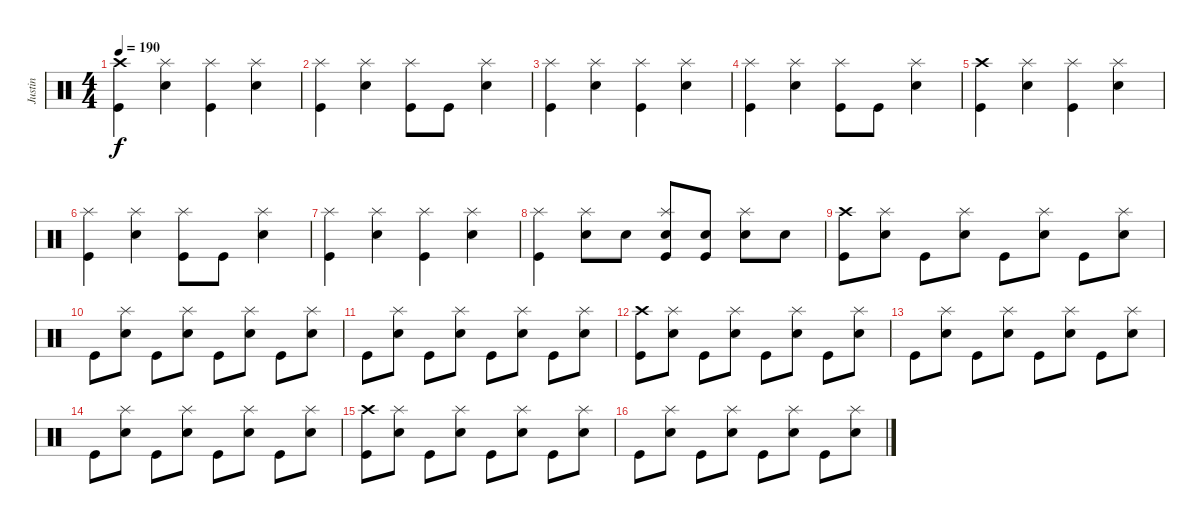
\track ("Justin" "Justin") {instrument percussion}
\staff {score}
\articulation defaults
\ts (4 4)
\tempo 190
\clef neutral
\ks c
("Crash high (hit)" "Kick (hit)").4{dy f} ("Splash (hit)" "Electric Snare (hit)").4 ("Splash (hit)" "Kick (hit)").4 ("Splash (hit)" "Electric Snare (hit)").4 |
("Splash (hit)" "Kick (hit)").4 ("Splash (hit)" "Electric Snare (hit)").4 ("Splash (hit)" "Kick (hit)").8 "Kick (hit)".8 ("Splash (hit)" "Electric Snare (hit)").4 |
("Splash (hit)" "Kick (hit)").4 ("Splash (hit)" "Electric Snare (hit)").4 ("Splash (hit)" "Kick (hit)").4 ("Splash (hit)" "Electric Snare (hit)").4 |
("Splash (hit)" "Kick (hit)").4 ("Splash (hit)" "Electric Snare (hit)").4 ("Splash (hit)" "Kick (hit)").8 "Kick (hit)".8 ("Splash (hit)" "Electric Snare (hit)").4 |
("Crash high (hit)" "Kick (hit)").4 ("Splash (hit)" "Electric Snare (hit)").4 ("Splash (hit)" "Kick (hit)").4 ("Splash (hit)" "Electric Snare (hit)").4 |
("Splash (hit)" "Kick (hit)").4 ("Splash (hit)" "Electric Snare (hit)").4 ("Splash (hit)" "Kick (hit)").8 "Kick (hit)".8 ("Splash (hit)" "Electric Snare (hit)").4 |
("Splash (hit)" "Kick (hit)").4 ("Splash (hit)" "Electric Snare (hit)").4 ("Splash (hit)" "Kick (hit)").4 ("Splash (hit)" "Electric Snare (hit)").4 |
("Splash (hit)" "Kick (hit)").4 ("Splash (hit)" "Electric Snare (hit)").8 "Electric Snare (hit)".8 ("Splash (hit)" "Electric Snare (hit)" "Kick (hit)").8 ("Electric Snare (hit)" "Kick (hit)").8 ("Splash (hit)" "Electric Snare (hit)").8 "Electric Snare (hit)".8 |
("Crash high (hit)" "Kick (hit)").8 ("Splash (hit)" "Electric Snare (hit)").8 "Kick (hit)".8 ("Splash (hit)" "Electric Snare (hit)").8 "Kick (hit)".8 ("Splash (hit)" "Electric Snare (hit)").8 "Kick (hit)".8 ("Splash (hit)" "Electric Snare (hit)").8 |
"Kick (hit)".8 ("Splash (hit)" "Electric Snare (hit)").8 "Kick (hit)".8 ("Splash (hit)" "Electric Snare (hit)").8 "Kick (hit)".8 ("Splash (hit)" "Electric Snare (hit)").8 "Kick (hit)".8 ("Splash (hit)" "Electric Snare (hit)").8 |
"Kick (hit)".8 ("Splash (hit)" "Electric Snare (hit)").8 "Kick (hit)".8 ("Splash (hit)" "Electric Snare (hit)").8 "Kick (hit)".8 ("Splash (hit)" "Electric Snare (hit)").8 "Kick (hit)".8 ("Splash (hit)" "Electric Snare (hit)").8 |
("Crash high (hit)" "Kick (hit)").8 ("Splash (hit)" "Electric Snare (hit)").8 "Kick (hit)".8 ("Splash (hit)" "Electric Snare (hit)").8 "Kick (hit)".8 ("Splash (hit)" "Electric Snare (hit)").8 "Kick (hit)".8 ("Splash (hit)" "Electric Snare (hit)").8 |
"Kick (hit)".8 ("Splash (hit)" "Electric Snare (hit)").8 "Kick (hit)".8 ("Splash (hit)" "Electric Snare (hit)").8 "Kick (hit)".8 ("Splash (hit)" "Electric Snare (hit)").8 "Kick (hit)".8 ("Splash (hit)" "Electric Snare (hit)").8 |
"Kick (hit)".8 ("Splash (hit)" "Electric Snare (hit)").8 "Kick (hit)".8 ("Splash (hit)" "Electric Snare (hit)").8 "Kick (hit)".8 ("Splash (hit)" "Electric Snare (hit)").8 "Kick (hit)".8 ("Splash (hit)" "Electric Snare (hit)").8 |
("Crash high (hit)" "Kick (hit)").8 ("Splash (hit)" "Electric Snare (hit)").8 "Kick (hit)".8 ("Splash (hit)" "Electric Snare (hit)").8 "Kick (hit)".8 ("Splash (hit)" "Electric Snare (hit)").8 "Kick (hit)".8 ("Splash (hit)" "Electric Snare (hit)").8 |
"Kick (hit)".8 ("Splash (hit)" "Electric Snare (hit)").8 "Kick (hit)".8 ("Splash (hit)" "Electric Snare (hit)").8 "Kick (hit)".8 ("Splash (hit)" "Electric Snare (hit)").8 "Kick (hit)".8 ("Splash (hit)" "Electric Snare (hit)").8
